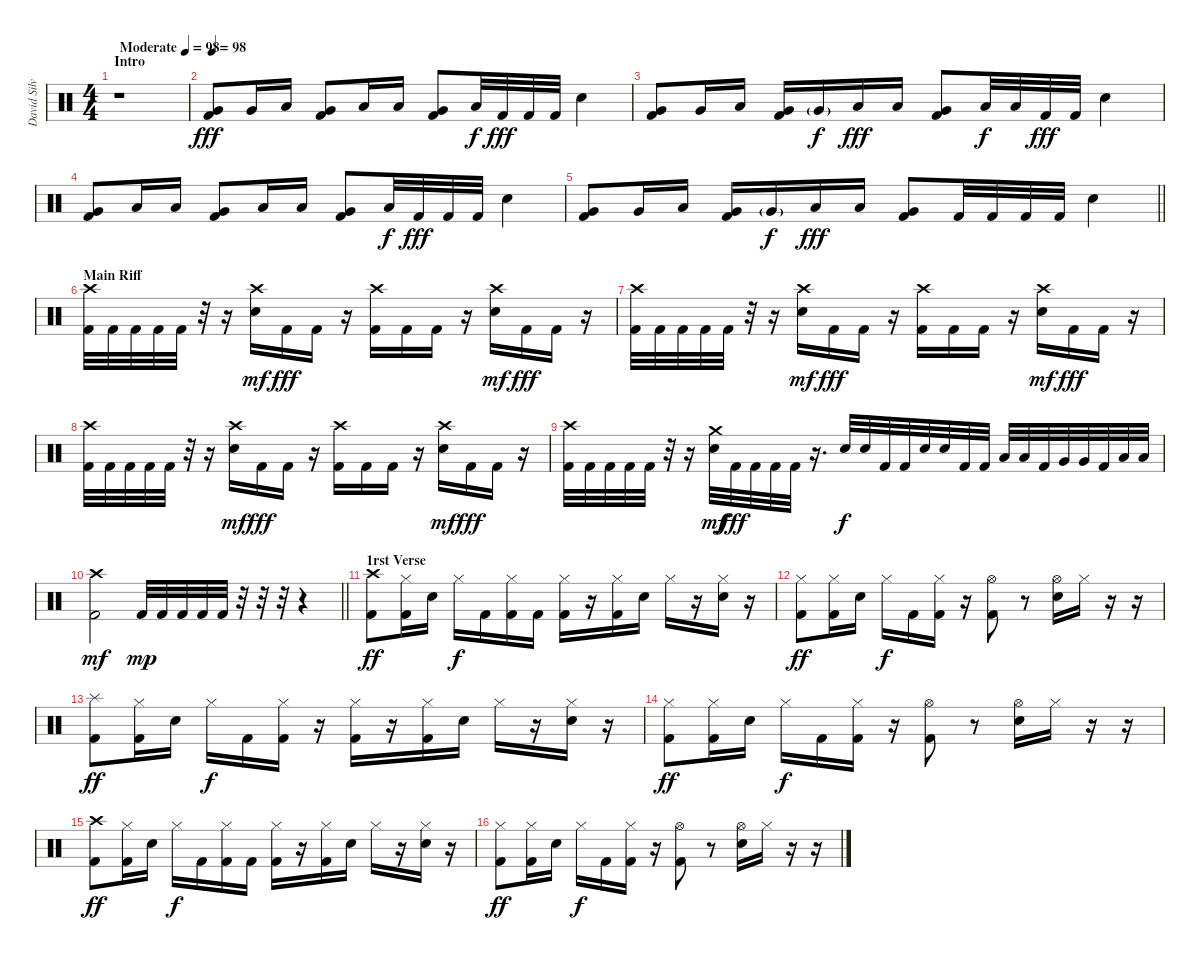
\track ("David Silveria" "David Silv") {instrument percussion}
\staff {score}
\articulation defaults
\ts (4 4)
\section ("" "Intro")
\tempo (98 "Moderate")
\tempo 94
\tempo (98 "Moderate")
\clef neutral
\ks c
r.1{dy fff} |
\tempo 98
("Very Low Tom (hit)" "Kick (hit) 2").8 "Very Low Tom (hit)".16 "Low Floor Tom (hit)".16 ("Very Low Tom (hit)" "Kick (hit) 2").8 "Low Floor Tom (hit)".16 "Low Floor Tom (hit)".16 ("Very Low Tom (hit)" "Kick (hit) 2").8 "Low Floor Tom (hit)".32{dy f} "Kick (hit) 2".32{dy fff} "Kick (hit) 2".32 "Kick (hit) 2".32 "Snare (hit) 2".4 |
("Very Low Tom (hit)" "Kick (hit) 2").8 "Very Low Tom (hit)".16 "Low Floor Tom (hit)".16 ("Very Low Tom (hit)" "Kick (hit) 2").16 "Very Low Tom (hit)"{g}.16{dy f} "Low Floor Tom (hit)".16{dy fff} "Low Floor Tom (hit)".16 ("Very Low Tom (hit)" "Kick (hit) 2").8 "Low Floor Tom (hit)".32{dy f} "Low Floor Tom (hit)".32 "Kick (hit) 2".32{dy fff} "Kick (hit) 2".32 "Snare (hit) 2".4 |
("Very Low Tom (hit)" "Kick (hit) 2").8 "Low Floor Tom (hit)".16 "Low Floor Tom (hit)".16 ("Very Low Tom (hit)" "Kick (hit) 2").8 "Low Floor Tom (hit)".16 "Low Floor Tom (hit)".16 ("Very Low Tom (hit)" "Kick (hit) 2").8 "Low Floor Tom (hit)".32{dy f} "Kick (hit) 2".32{dy fff} "Kick (hit) 2".32 "Kick (hit) 2".32 "Snare (hit) 2".4 |
\barLineRight lightlight
("Very Low Tom (hit)" "Kick (hit) 2").8 "Very Low Tom (hit)".16 "Low Floor Tom (hit)".16 ("Very Low Tom (hit)" "Kick (hit) 2").16 "Very Low Tom (hit)"{g}.16{dy f} "Low Floor Tom (hit)".16{dy fff} "Low Floor Tom (hit)".16 ("Very Low Tom (hit)" "Kick (hit) 2").8 "Kick (hit) 2".32 "Kick (hit) 2".32 "Kick (hit) 2".32 "Kick (hit) 2".32 "Snare (hit) 2".4 |
\section ("" "Main Riff")
("Crash high (hit)" "Kick (hit) 2").32 "Kick (hit) 2".32 "Kick (hit) 2".32 "Kick (hit) 2".32 "Kick (hit) 2".32 r.32 r.16 ("Crash high (hit)" "Snare (hit) 2").16{dy mf} "Kick (hit) 2".16{dy fff} "Kick (hit) 2".16 r.16 ("Crash high (hit)" "Kick (hit) 2").16 "Kick (hit) 2".16 "Kick (hit) 2".16 r.16 ("Crash high (hit)" "Snare (hit) 2").16{dy mf} "Kick (hit) 2".16{dy fff} "Kick (hit) 2".16 r.16 |
("Crash high (hit)" "Kick (hit) 2").32 "Kick (hit) 2".32 "Kick (hit) 2".32 "Kick (hit) 2".32 "Kick (hit) 2".32 r.32 r.16 ("Crash high (hit)" "Snare (hit) 2").16{dy mf} "Kick (hit) 2".16{dy fff} "Kick (hit) 2".16 r.16 ("Crash high (hit)" "Kick (hit) 2").16 "Kick (hit) 2".16 "Kick (hit) 2".16 r.16 ("Crash high (hit)" "Snare (hit) 2").16{dy mf} "Kick (hit) 2".16{dy fff} "Kick (hit) 2".16 r.16 |
("Crash high (hit)" "Kick (hit) 2").32 "Kick (hit) 2".32 "Kick (hit) 2".32 "Kick (hit) 2".32 "Kick (hit) 2".32 r.32 r.16 ("Crash high (hit)" "Snare (hit) 2").16{dy mf} "Kick (hit) 2".16{dy fff} "Kick (hit) 2".16 r.16 ("Crash high (hit)" "Kick (hit) 2").16 "Kick (hit) 2".16 "Kick (hit) 2".16 r.16 ("Crash high (hit)" "Snare (hit) 2").16{dy mf} "Kick (hit) 2".16{dy fff} "Kick (hit) 2".16 r.16 |
("Crash high (hit)" "Kick (hit) 2").32 "Kick (hit) 2".32 "Kick (hit) 2".32 "Kick (hit) 2".32 "Kick (hit) 2".32 r.32 r.16 ("Crash medium (hit)" "Snare (hit) 2").32{dy mf} "Kick (hit) 2".32{dy fff} "Kick (hit) 2".32 "Kick (hit) 2".32 "Kick (hit) 2".32 r.16{d} "Snare (hit) 2".32{dy f} "Snare (hit) 2".32 "Kick (hit) 2".32 "Kick (hit) 2".32 "Snare (hit) 2".32 "Snare (hit) 2".32 "Kick (hit) 2".32 "Kick (hit) 2".32 "Low Tom (hit)".32 "Low Tom (hit)".32 "Kick (hit) 2".32 "Very Low Tom (hit)".32 "Very Low Tom (hit)".32 "Kick (hit) 2".32 "Low Floor Tom (hit)".32 "Low Floor Tom (hit)".32 |
\barLineRight lightlight
("Crash high (hit)" "Kick (hit) 2").2{dy mf} "Kick (hit) 2".32{dy mp} "Kick (hit) 2".32 "Kick (hit) 2".32 "Kick (hit) 2".32 "Kick (hit) 2".32 r.32 r.32 r.32 r.4 |
\section ("" "1rst Verse")
("Crash high (hit)" "Kick (hit) 2").8{dy ff} ("Hi-Hat (closed)" "Kick (hit) 2").16 "Snare (hit) 2".16 "Hi-Hat (closed)".16{dy f} "Kick (hit) 2".16 ("Hi-Hat (closed)" "Kick (hit) 2").16 "Kick (hit) 2".16 ("Hi-Hat (closed)" "Kick (hit) 2").16 r.16 ("Hi-Hat (closed)" "Kick (hit) 2").16 "Snare (hit) 2".16 "Hi-Hat (closed)".16 r.16 ("Hi-Hat (closed)" "Snare (hit) 2").16 r.16 |
("Hi-Hat (closed)" "Kick (hit) 2").8{dy ff} ("Hi-Hat (closed)" "Kick (hit) 2").16 "Snare (hit) 2".16 "Hi-Hat (closed)".16{dy f} "Kick (hit) 2".16 ("Hi-Hat (closed)" "Kick (hit) 2").16 r.16 ("Hi-Hat (open)" "Kick (hit) 2").8 r.8 ("Hi-Hat (open)" "Snare (hit) 2").16 "Hi-Hat (closed)".16 r.16 r.16 |
("Splash (hit)" "Kick (hit) 2").8{dy ff} ("Hi-Hat (closed)" "Kick (hit) 2").16 "Snare (hit) 2".16 "Hi-Hat (closed)".16{dy f} "Kick (hit) 2".16 ("Hi-Hat (closed)" "Kick (hit) 2").16 r.16 ("Hi-Hat (closed)" "Kick (hit) 2").16 r.16 ("Hi-Hat (closed)" "Kick (hit) 2").16 "Snare (hit) 2".16 "Hi-Hat (closed)".16 r.16 ("Hi-Hat (closed)" "Snare (hit) 2").16 r.16 |
("Hi-Hat (closed)" "Kick (hit) 2").8{dy ff} ("Hi-Hat (closed)" "Kick (hit) 2").16 "Snare (hit) 2".16 "Hi-Hat (closed)".16{dy f} "Kick (hit) 2".16 ("Hi-Hat (closed)" "Kick (hit) 2").16 r.16 ("Hi-Hat (open)" "Kick (hit) 2").8 r.8 ("Hi-Hat (open)" "Snare (hit) 2").16 "Hi-Hat (closed)".16 r.16 r.16 |
("Crash high (hit)" "Kick (hit) 2").8{dy ff} ("Hi-Hat (closed)" "Kick (hit) 2").16 "Snare (hit) 2".16 "Hi-Hat (closed)".16{dy f} "Kick (hit) 2".16 ("Hi-Hat (closed)" "Kick (hit) 2").16 "Kick (hit) 2".16 ("Hi-Hat (closed)" "Kick (hit) 2").16 r.16 ("Hi-Hat (closed)" "Kick (hit) 2").16 "Snare (hit) 2".16 "Hi-Hat (closed)".16 r.16 ("Hi-Hat (closed)" "Snare (hit) 2").16 r.16 |
("Hi-Hat (closed)" "Kick (hit) 2").8{dy ff} ("Hi-Hat (closed)" "Kick (hit) 2").16 "Snare (hit) 2".16 "Hi-Hat (closed)".16{dy f} "Kick (hit) 2".16 ("Hi-Hat (closed)" "Kick (hit) 2").16 r.16 ("Hi-Hat (open)" "Kick (hit) 2").8 r.8 ("Hi-Hat (open)" "Snare (hit) 2").16 "Hi-Hat (closed)".16 r.16 r.16
